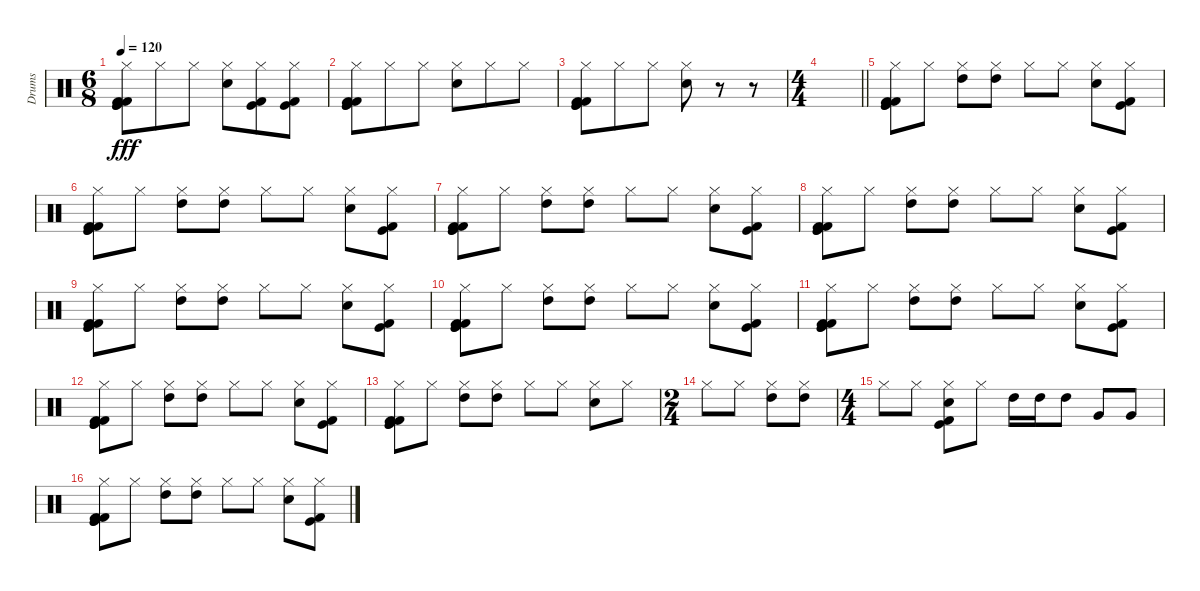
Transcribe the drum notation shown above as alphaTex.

\track ("Drums" "Drums") {instrument percussion}
\staff {score}
\articulation defaults
\ts (6 8)
\tempo 120
\clef neutral
\ks c
("Hi-Hat (closed)" "Kick (hit)" "Kick (hit) 2" "Kick (hit) 2" "Kick (hit)").8{dy fff} "Hi-Hat (closed)".8 "Hi-Hat (closed)".8 ("Hi-Hat (closed)" "Snare (hit) 2").8 ("Hi-Hat (closed)" "Kick (hit) 2" "Kick (hit)").8 ("Hi-Hat (closed)" "Kick (hit) 2" "Kick (hit)").8 |
("Hi-Hat (closed)" "Kick (hit)" "Kick (hit) 2" "Kick (hit) 2" "Kick (hit)").8 "Hi-Hat (closed)".8 "Hi-Hat (closed)".8 ("Hi-Hat (closed)" "Snare (hit) 2").8 "Hi-Hat (closed)".8 "Hi-Hat (closed)".8 |
("Hi-Hat (closed)" "Kick (hit)" "Kick (hit) 2" "Kick (hit) 2" "Kick (hit)").8 "Hi-Hat (closed)".8 "Hi-Hat (closed)".8 ("Hi-Hat (closed)" "Snare (hit) 2").8 r.8 r.8 |
\ts (4 4)
\barLineRight lightlight
|
("Hi-Hat (closed)" "Kick (hit) 2" "Kick (hit) 2" "Kick (hit)" "Kick (hit)").8 "Hi-Hat (closed)".8 ("Hi-Hat (closed)" "High Tom (hit)").8 ("Hi-Hat (closed)" "High Tom (hit)").8 "Hi-Hat (closed)".8 "Hi-Hat (closed)".8 ("Hi-Hat (closed)" "Snare (hit) 2").8 ("Hi-Hat (closed)" "Kick (hit) 2" "Kick (hit)").8 |
("Hi-Hat (closed)" "Kick (hit) 2" "Kick (hit) 2" "Kick (hit)" "Kick (hit)").8 "Hi-Hat (closed)".8 ("Hi-Hat (closed)" "High Tom (hit)").8 ("Hi-Hat (closed)" "High Tom (hit)").8 "Hi-Hat (closed)".8 "Hi-Hat (closed)".8 ("Hi-Hat (closed)" "Snare (hit) 2").8 ("Hi-Hat (closed)" "Kick (hit) 2" "Kick (hit)").8 |
("Hi-Hat (closed)" "Kick (hit) 2" "Kick (hit) 2" "Kick (hit)" "Kick (hit)").8 "Hi-Hat (closed)".8 ("Hi-Hat (closed)" "High Tom (hit)").8 ("Hi-Hat (closed)" "High Tom (hit)").8 "Hi-Hat (closed)".8 "Hi-Hat (closed)".8 ("Hi-Hat (closed)" "Snare (hit) 2").8 ("Hi-Hat (closed)" "Kick (hit) 2" "Kick (hit)").8 |
("Hi-Hat (closed)" "Kick (hit) 2" "Kick (hit) 2" "Kick (hit)" "Kick (hit)").8 "Hi-Hat (closed)".8 ("Hi-Hat (closed)" "High Tom (hit)").8 ("Hi-Hat (closed)" "High Tom (hit)").8 "Hi-Hat (closed)".8 "Hi-Hat (closed)".8 ("Hi-Hat (closed)" "Snare (hit) 2").8 ("Hi-Hat (closed)" "Kick (hit) 2" "Kick (hit)").8 |
("Hi-Hat (closed)" "Kick (hit) 2" "Kick (hit) 2" "Kick (hit)" "Kick (hit)").8 "Hi-Hat (closed)".8 ("Hi-Hat (closed)" "High Tom (hit)").8 ("Hi-Hat (closed)" "High Tom (hit)").8 "Hi-Hat (closed)".8 "Hi-Hat (closed)".8 ("Hi-Hat (closed)" "Snare (hit) 2").8 ("Hi-Hat (closed)" "Kick (hit) 2" "Kick (hit)").8 |
("Hi-Hat (closed)" "Kick (hit) 2" "Kick (hit) 2" "Kick (hit)" "Kick (hit)").8 "Hi-Hat (closed)".8 ("Hi-Hat (closed)" "High Tom (hit)").8 ("Hi-Hat (closed)" "High Tom (hit)").8 "Hi-Hat (closed)".8 "Hi-Hat (closed)".8 ("Hi-Hat (closed)" "Snare (hit) 2").8 ("Hi-Hat (closed)" "Kick (hit) 2" "Kick (hit)").8 |
("Hi-Hat (closed)" "Kick (hit) 2" "Kick (hit) 2" "Kick (hit)" "Kick (hit)").8 "Hi-Hat (closed)".8 ("Hi-Hat (closed)" "High Tom (hit)").8 ("Hi-Hat (closed)" "High Tom (hit)").8 "Hi-Hat (closed)".8 "Hi-Hat (closed)".8 ("Hi-Hat (closed)" "Snare (hit) 2").8 ("Hi-Hat (closed)" "Kick (hit) 2" "Kick (hit)").8 |
("Hi-Hat (closed)" "Kick (hit) 2" "Kick (hit) 2" "Kick (hit)" "Kick (hit)").8 "Hi-Hat (closed)".8 ("Hi-Hat (closed)" "High Tom (hit)").8 ("Hi-Hat (closed)" "High Tom (hit)").8 "Hi-Hat (closed)".8 "Hi-Hat (closed)".8 ("Hi-Hat (closed)" "Snare (hit) 2").8 ("Hi-Hat (closed)" "Kick (hit) 2" "Kick (hit)").8 |
("Hi-Hat (closed)" "Kick (hit) 2" "Kick (hit) 2" "Kick (hit)" "Kick (hit)").8 "Hi-Hat (closed)".8 ("Hi-Hat (closed)" "High Tom (hit)").8 ("Hi-Hat (closed)" "High Tom (hit)").8 "Hi-Hat (closed)".8 "Hi-Hat (closed)".8 ("Hi-Hat (closed)" "Snare (hit) 2").8 "Hi-Hat (closed)".8 |
\ts (2 4)
"Hi-Hat (closed)".8 "Hi-Hat (closed)".8 ("Hi-Hat (closed)" "High Tom (hit)").8 ("Hi-Hat (closed)" "High Tom (hit)").8 |
\ts (4 4)
"Hi-Hat (closed)".8 "Hi-Hat (closed)".8 ("Hi-Hat (closed)" "Snare (hit) 2" "Kick (hit) 2" "Kick (hit)").8 "Hi-Hat (closed)".8 "High Tom (hit)".16 "High Tom (hit)".16 "High Tom (hit)".8 "Very Low Tom (hit)".8 "Very Low Tom (hit)".8 |
("Hi-Hat (closed)" "Kick (hit) 2" "Kick (hit) 2" "Kick (hit)" "Kick (hit)").8 "Hi-Hat (closed)".8 ("Hi-Hat (closed)" "High Tom (hit)").8 ("Hi-Hat (closed)" "High Tom (hit)").8 "Hi-Hat (closed)".8 "Hi-Hat (closed)".8 ("Hi-Hat (closed)" "Snare (hit) 2").8 ("Hi-Hat (closed)" "Kick (hit) 2" "Kick (hit)").8
